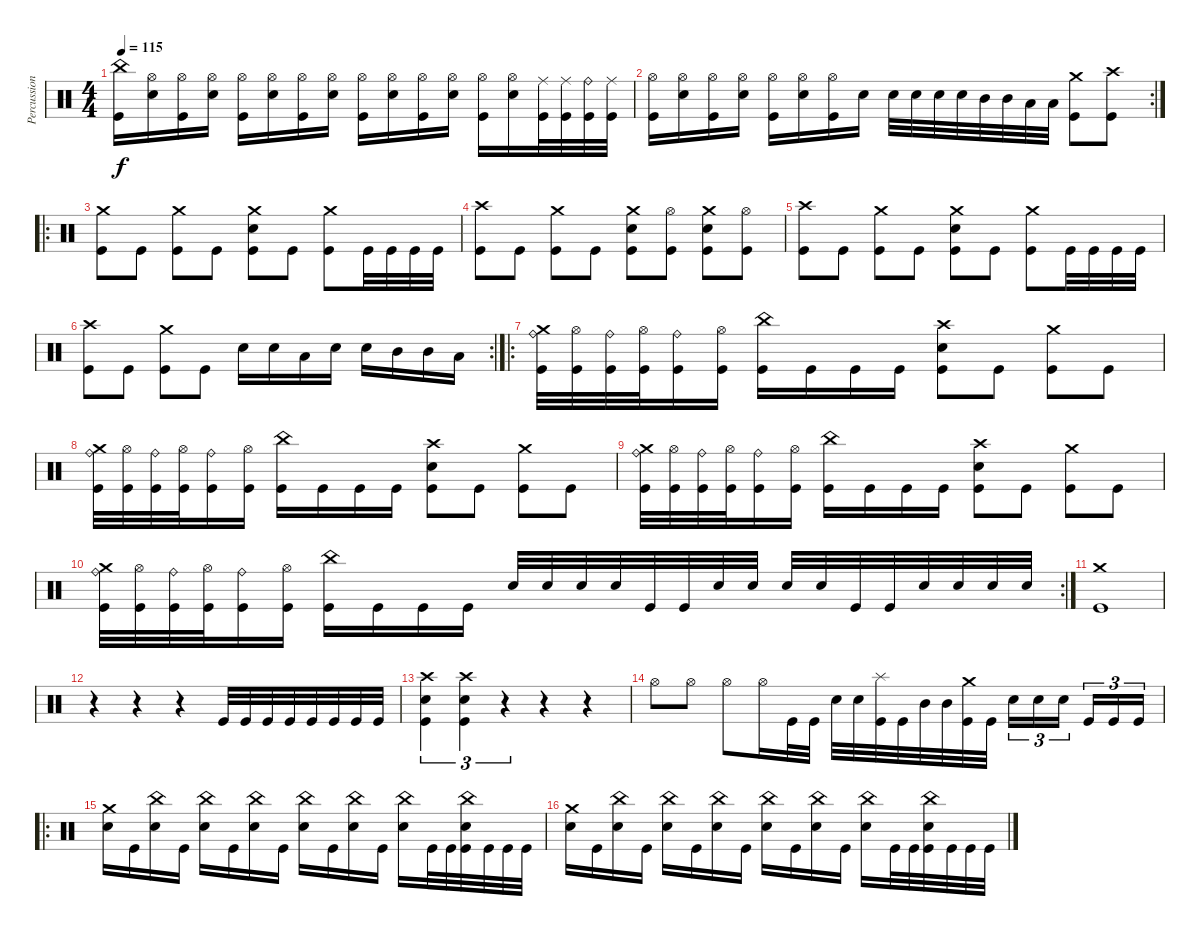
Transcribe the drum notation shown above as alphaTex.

\track ("Percussion" "Percussion") {instrument percussion}
\staff {score}
\articulation defaults
\ts (4 4)
\tempo 115
\clef neutral
\ks c
("China (hit)" "Kick (hit)").16{dy f} ("Hi-Hat (open)" "Electric Snare (hit)").16 ("Hi-Hat (open)" "Kick (hit)").16 ("Hi-Hat (open)" "Electric Snare (hit)").16 ("Hi-Hat (open)" "Kick (hit)").16 ("Hi-Hat (open)" "Electric Snare (hit)").16 ("Hi-Hat (open)" "Kick (hit)").16 ("Hi-Hat (open)" "Electric Snare (hit)").16 ("Hi-Hat (open)" "Kick (hit)").16 ("Hi-Hat (open)" "Electric Snare (hit)").16 ("Hi-Hat (open)" "Kick (hit)").16 ("Hi-Hat (open)" "Electric Snare (hit)").16 ("Hi-Hat (open)" "Kick (hit)").16 ("Hi-Hat (open)" "Electric Snare (hit)").16 ("Ride (middle)" "Kick (hit)").32 ("Ride (middle)" "Kick (hit)").32 ("Ride (bell)" "Kick (hit)").32 ("Ride (middle)" "Kick (hit)").32 |
\rc 2
("Hi-Hat (open)" "Kick (hit)").16 ("Hi-Hat (open)" "Electric Snare (hit)").16 ("Hi-Hat (open)" "Kick (hit)").16 ("Hi-Hat (open)" "Electric Snare (hit)").16 ("Hi-Hat (open)" "Kick (hit)").16 ("Hi-Hat (open)" "Electric Snare (hit)").16 ("Hi-Hat (open)" "Kick (hit)").16 "Electric Snare (hit)".16 "Electric Snare (hit)".32 "Electric Snare (hit)".32 "Electric Snare (hit)".32 "Electric Snare (hit)".32 "Mid Tom (hit)".32 "Mid Tom (hit)".32 "Low Tom (hit)".32 "Low Tom (hit)".32 ("Crash medium (hit)" "Kick (hit)").8 ("Crash high (hit)" "Kick (hit)").8 |
\ro
("Crash medium (hit)" "Kick (hit)").8 "Kick (hit)".8 ("Crash medium (hit)" "Kick (hit)").8 "Kick (hit)".8 ("Crash medium (hit)" "Electric Snare (hit)" "Kick (hit)").8 "Kick (hit)".8 ("Crash medium (hit)" "Kick (hit)").8 "Kick (hit)".32 "Kick (hit)".32 "Kick (hit)".32 "Kick (hit)".32 |
("Crash high (hit)" "Kick (hit)").8 "Kick (hit)".8 ("Crash medium (hit)" "Kick (hit)").8 "Kick (hit)".8 ("Crash medium (hit)" "Electric Snare (hit)" "Kick (hit)").8 ("Hi-Hat (open)" "Kick (hit)").8 ("Crash medium (hit)" "Electric Snare (hit)" "Kick (hit)").8 ("Hi-Hat (open)" "Kick (hit)").8 |
("Crash high (hit)" "Kick (hit)").8 "Kick (hit)".8 ("Crash medium (hit)" "Kick (hit)").8 "Kick (hit)".8 ("Crash medium (hit)" "Electric Snare (hit)" "Kick (hit)").8 "Kick (hit)".8 ("Crash medium (hit)" "Kick (hit)").8 "Kick (hit)".32 "Kick (hit)".32 "Kick (hit)".32 "Kick (hit)".32 |
\rc 2
("Crash high (hit)" "Kick (hit)").8 "Kick (hit)".8 ("Crash medium (hit)" "Kick (hit)").8 "Kick (hit)".8 "Electric Snare (hit)".16 "Electric Snare (hit)".16 "Low Tom (hit)".16 "Electric Snare (hit)".16 "Electric Snare (hit)".16 "Mid Tom (hit)".16 "Mid Tom (hit)".16 "Low Tom (hit)".16 |
\ro
("Crash medium (hit)" "Ride (bell)" "Kick (hit)").32 ("Hi-Hat (open)" "Kick (hit)").32 ("Ride (bell)" "Kick (hit)").32 ("Hi-Hat (open)" "Kick (hit)").32 ("Ride (bell)" "Kick (hit)").16 ("Hi-Hat (open)" "Kick (hit)").16 ("China (hit)" "Kick (hit)").16 "Kick (hit)".16 "Kick (hit)".16 "Kick (hit)".16 ("Crash high (hit)" "Electric Snare (hit)" "Kick (hit)").8 "Kick (hit)".8 ("Crash medium (hit)" "Kick (hit)").8 "Kick (hit)".8 |
("Crash medium (hit)" "Ride (bell)" "Kick (hit)").32 ("Hi-Hat (open)" "Kick (hit)").32 ("Ride (bell)" "Kick (hit)").32 ("Hi-Hat (open)" "Kick (hit)").32 ("Ride (bell)" "Kick (hit)").16 ("Hi-Hat (open)" "Kick (hit)").16 ("China (hit)" "Kick (hit)").16 "Kick (hit)".16 "Kick (hit)".16 "Kick (hit)".16 ("Crash high (hit)" "Electric Snare (hit)" "Kick (hit)").8 "Kick (hit)".8 ("Crash medium (hit)" "Kick (hit)").8 "Kick (hit)".8 |
("Crash medium (hit)" "Ride (bell)" "Kick (hit)").32 ("Hi-Hat (open)" "Kick (hit)").32 ("Ride (bell)" "Kick (hit)").32 ("Hi-Hat (open)" "Kick (hit)").32 ("Ride (bell)" "Kick (hit)").16 ("Hi-Hat (open)" "Kick (hit)").16 ("China (hit)" "Kick (hit)").16 "Kick (hit)".16 "Kick (hit)".16 "Kick (hit)".16 ("Crash high (hit)" "Electric Snare (hit)" "Kick (hit)").8 "Kick (hit)".8 ("Crash medium (hit)" "Kick (hit)").8 "Kick (hit)".8 |
\rc 2
("Crash medium (hit)" "Ride (bell)" "Kick (hit)").32 ("Hi-Hat (open)" "Kick (hit)").32 ("Ride (bell)" "Kick (hit)").32 ("Hi-Hat (open)" "Kick (hit)").32 ("Ride (bell)" "Kick (hit)").16 ("Hi-Hat (open)" "Kick (hit)").16 ("China (hit)" "Kick (hit)").16 "Kick (hit)".16 "Kick (hit)".16 "Kick (hit)".16 "Electric Snare (hit)".32 "Electric Snare (hit)".32 "Electric Snare (hit)".32 "Electric Snare (hit)".32 "Kick (hit)".32 "Kick (hit)".32 "Electric Snare (hit)".32 "Electric Snare (hit)".32 "Electric Snare (hit)".32 "Electric Snare (hit)".32 "Kick (hit)".32 "Kick (hit)".32 "Electric Snare (hit)".32 "Electric Snare (hit)".32 "Electric Snare (hit)".32 "Electric Snare (hit)".32 |
("Crash medium (hit)" "Kick (hit)").1 |
r.4 r.4 r.4 "Kick (hit)".32 "Kick (hit)".32 "Kick (hit)".32 "Kick (hit)".32 "Kick (hit)".32 "Kick (hit)".32 "Kick (hit)".32 "Kick (hit)".32 |
("Crash high (hit)" "Electric Snare (hit)" "Kick (hit)").4{tu (3 2)} ("Crash high (hit)" "Electric Snare (hit)" "Kick (hit)").4{tu (3 2)} r.4{tu (3 2)} r.4 r.4 |
"Hi-Hat (open)".8 "Hi-Hat (open)".8 "Hi-Hat (open)".8 "Hi-Hat (open)".16 "Kick (hit)".32 "Kick (hit)".32 "Electric Snare (hit)".32 "Electric Snare (hit)".32 ("Splash (hit)" "Kick (hit)").32 "Kick (hit)".32 "Mid Tom (hit)".32 "Mid Tom (hit)".32 ("Crash medium (hit)" "Kick (hit)").32 "Kick (hit)".32 "Electric Snare (hit)".16{tu (3 2)} "Electric Snare (hit)".16{tu (3 2)} "Electric Snare (hit)".16{tu (3 2) beam splitsecondary} "Kick (hit)".16{tu (3 2)} "Kick (hit)".16{tu (3 2)} "Kick (hit)".16{tu (3 2)} |
\ro
("Crash medium (hit)" "Electric Snare (hit)").16 "Kick (hit)".16 ("China (hit)" "Electric Snare (hit)").16 "Kick (hit)".16 ("China (hit)" "Electric Snare (hit)").16 "Kick (hit)".16 ("China (hit)" "Electric Snare (hit)").16 "Kick (hit)".16 ("China (hit)" "Electric Snare (hit)").16 "Kick (hit)".16 ("China (hit)" "Electric Snare (hit)").16 "Kick (hit)".16 ("China (hit)" "Electric Snare (hit)").16 "Kick (hit)".32 "Kick (hit)".32 ("China (hit)" "Electric Snare (hit)" "Kick (hit)").32 "Kick (hit)".32 "Kick (hit)".32 "Kick (hit)".32 |
("Crash medium (hit)" "Electric Snare (hit)").16 "Kick (hit)".16 ("China (hit)" "Electric Snare (hit)").16 "Kick (hit)".16 ("China (hit)" "Electric Snare (hit)").16 "Kick (hit)".16 ("China (hit)" "Electric Snare (hit)").16 "Kick (hit)".16 ("China (hit)" "Electric Snare (hit)").16 "Kick (hit)".16 ("China (hit)" "Electric Snare (hit)").16 "Kick (hit)".16 ("China (hit)" "Electric Snare (hit)").16 "Kick (hit)".32 "Kick (hit)".32 ("China (hit)" "Electric Snare (hit)" "Kick (hit)").32 "Kick (hit)".32 "Kick (hit)".32 "Kick (hit)".32
